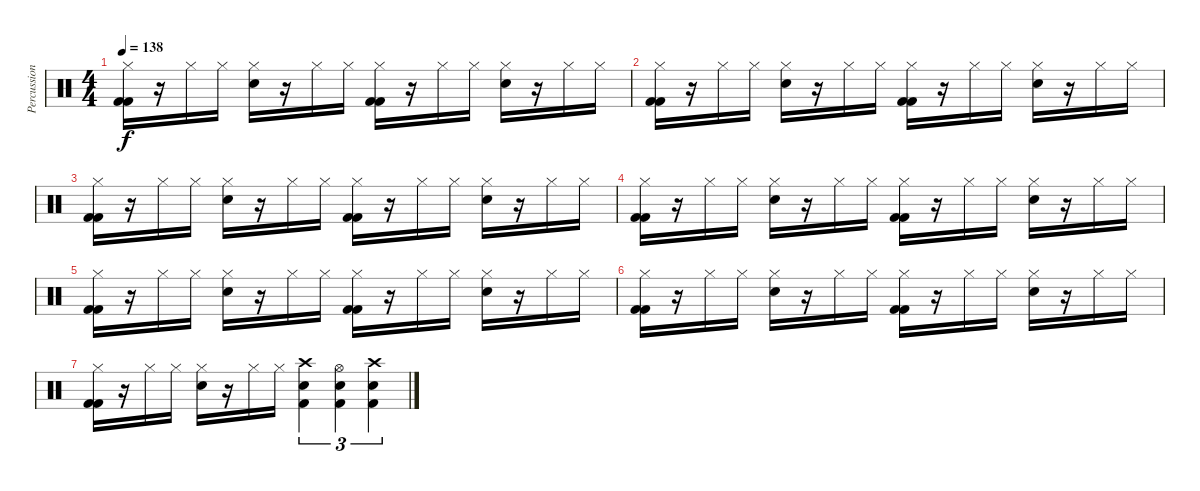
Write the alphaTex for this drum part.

\track ("Percussion" "Percussion") {instrument percussion}
\staff {score}
\articulation defaults
\ts (4 4)
\tempo 138
\clef neutral
\ks c
("Hi-Hat (closed)" "Kick (hit) 2" "Kick (hit) 2").16{dy f} r.16 "Hi-Hat (closed)".16 "Hi-Hat (closed)".16 ("Hi-Hat (closed)" "Snare (hit) 2").16 r.16 "Hi-Hat (closed)".16 "Hi-Hat (closed)".16 ("Hi-Hat (closed)" "Kick (hit) 2" "Kick (hit) 2").16 r.16 "Hi-Hat (closed)".16 "Hi-Hat (closed)".16 ("Hi-Hat (closed)" "Snare (hit) 2").16 r.16 "Hi-Hat (closed)".16 "Hi-Hat (closed)".16 |
("Hi-Hat (closed)" "Kick (hit) 2" "Kick (hit) 2").16 r.16 "Hi-Hat (closed)".16 "Hi-Hat (closed)".16 ("Hi-Hat (closed)" "Snare (hit) 2").16 r.16 "Hi-Hat (closed)".16 "Hi-Hat (closed)".16 ("Hi-Hat (closed)" "Kick (hit) 2" "Kick (hit) 2").16 r.16 "Hi-Hat (closed)".16 "Hi-Hat (closed)".16 ("Hi-Hat (closed)" "Snare (hit) 2").16 r.16 "Hi-Hat (closed)".16 "Hi-Hat (closed)".16 |
("Hi-Hat (closed)" "Kick (hit) 2" "Kick (hit) 2").16 r.16 "Hi-Hat (closed)".16 "Hi-Hat (closed)".16 ("Hi-Hat (closed)" "Snare (hit) 2").16 r.16 "Hi-Hat (closed)".16 "Hi-Hat (closed)".16 ("Hi-Hat (closed)" "Kick (hit) 2" "Kick (hit) 2").16 r.16 "Hi-Hat (closed)".16 "Hi-Hat (closed)".16 ("Hi-Hat (closed)" "Snare (hit) 2").16 r.16 "Hi-Hat (closed)".16 "Hi-Hat (closed)".16 |
("Hi-Hat (closed)" "Kick (hit) 2" "Kick (hit) 2").16 r.16 "Hi-Hat (closed)".16 "Hi-Hat (closed)".16 ("Hi-Hat (closed)" "Snare (hit) 2").16 r.16 "Hi-Hat (closed)".16 "Hi-Hat (closed)".16 ("Hi-Hat (closed)" "Kick (hit) 2" "Kick (hit) 2").16 r.16 "Hi-Hat (closed)".16 "Hi-Hat (closed)".16 ("Hi-Hat (closed)" "Snare (hit) 2").16 r.16 "Hi-Hat (closed)".16 "Hi-Hat (closed)".16 |
("Hi-Hat (closed)" "Kick (hit) 2" "Kick (hit) 2").16 r.16 "Hi-Hat (closed)".16 "Hi-Hat (closed)".16 ("Hi-Hat (closed)" "Snare (hit) 2").16 r.16 "Hi-Hat (closed)".16 "Hi-Hat (closed)".16 ("Hi-Hat (closed)" "Kick (hit) 2" "Kick (hit) 2").16 r.16 "Hi-Hat (closed)".16 "Hi-Hat (closed)".16 ("Hi-Hat (closed)" "Snare (hit) 2").16 r.16 "Hi-Hat (closed)".16 "Hi-Hat (closed)".16 |
("Hi-Hat (closed)" "Kick (hit) 2" "Kick (hit) 2").16 r.16 "Hi-Hat (closed)".16 "Hi-Hat (closed)".16 ("Hi-Hat (closed)" "Snare (hit) 2").16 r.16 "Hi-Hat (closed)".16 "Hi-Hat (closed)".16 ("Hi-Hat (closed)" "Kick (hit) 2" "Kick (hit) 2").16 r.16 "Hi-Hat (closed)".16 "Hi-Hat (closed)".16 ("Hi-Hat (closed)" "Snare (hit) 2").16 r.16 "Hi-Hat (closed)".16 "Hi-Hat (closed)".16 |
("Hi-Hat (closed)" "Kick (hit) 2" "Kick (hit) 2").16 r.16 "Hi-Hat (closed)".16 "Hi-Hat (closed)".16 ("Hi-Hat (closed)" "Snare (hit) 2").16 r.16 "Hi-Hat (closed)".16 "Hi-Hat (closed)".16 ("Crash high (hit)" "Snare (hit) 2" "Kick (hit) 2").4{tu (3 2)} ("Hi-Hat (open)" "Snare (hit) 2" "Kick (hit) 2").4{tu (3 2)} ("Crash high (hit)" "Snare (hit) 2" "Kick (hit) 2").4{tu (3 2)}
